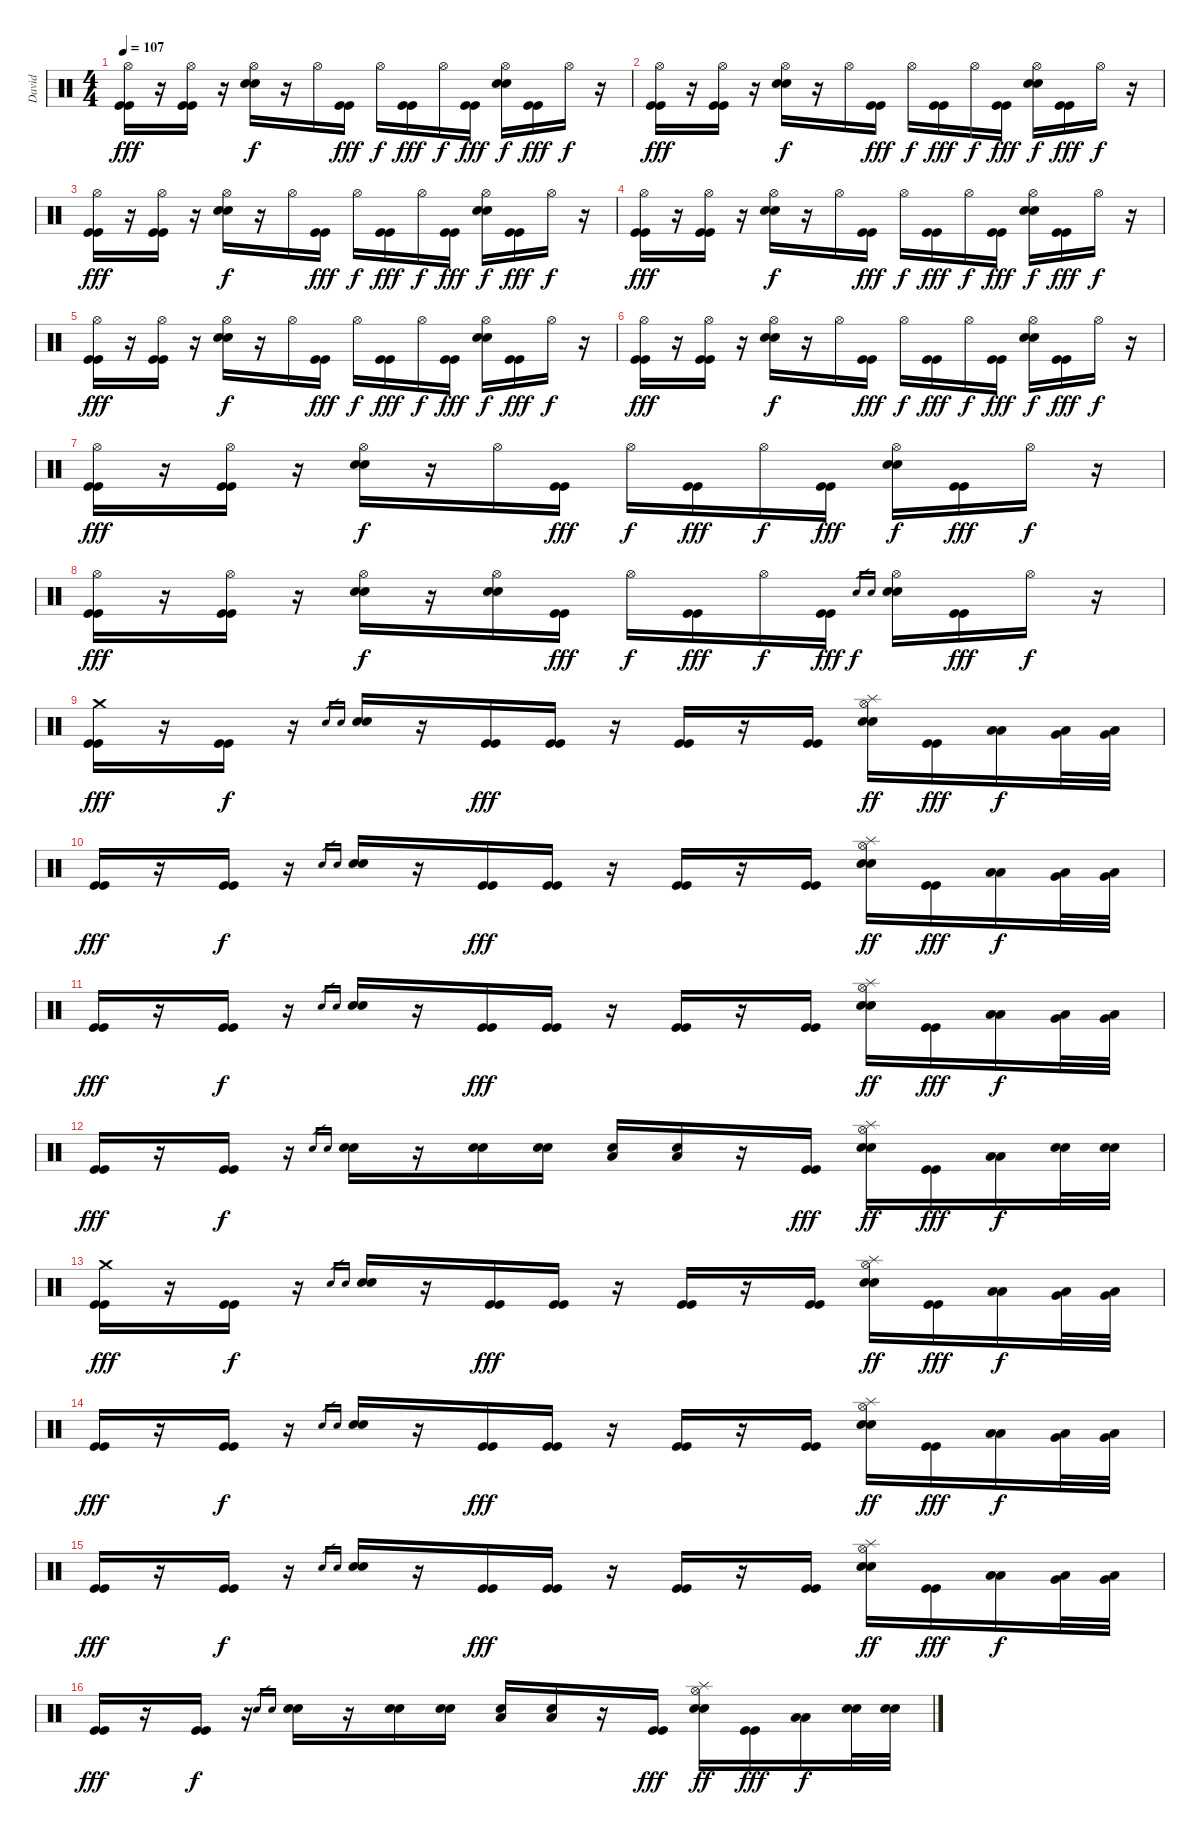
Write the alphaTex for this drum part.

\track ("David" "David") {instrument percussion}
\staff {score}
\articulation defaults
\ts (4 4)
\tempo 107
\clef neutral
\ks c
("Hi-Hat (open)" "Kick (hit)" "Kick (hit)").16{dy fff} r.16 ("Hi-Hat (open)" "Kick (hit)" "Kick (hit)").16 r.16 ("Hi-Hat (open)" "Electric Snare (hit)" "Electric Snare (hit)").16{dy f} r.16 "Hi-Hat (open)".16 ("Kick (hit)" "Kick (hit)").16{dy fff} "Hi-Hat (open)".16{dy f} ("Kick (hit)" "Kick (hit)").16{dy fff} "Hi-Hat (open)".16{dy f} ("Kick (hit)" "Kick (hit)").16{dy fff} ("Hi-Hat (open)" "Electric Snare (hit)" "Electric Snare (hit)").16{dy f} ("Kick (hit)" "Kick (hit)").16{dy fff} "Hi-Hat (open)".16{dy f} r.16 |
("Hi-Hat (open)" "Kick (hit)" "Kick (hit)").16{dy fff} r.16 ("Hi-Hat (open)" "Kick (hit)" "Kick (hit)").16 r.16 ("Hi-Hat (open)" "Electric Snare (hit)" "Electric Snare (hit)").16{dy f} r.16 "Hi-Hat (open)".16 ("Kick (hit)" "Kick (hit)").16{dy fff} "Hi-Hat (open)".16{dy f} ("Kick (hit)" "Kick (hit)").16{dy fff} "Hi-Hat (open)".16{dy f} ("Kick (hit)" "Kick (hit)").16{dy fff} ("Hi-Hat (open)" "Electric Snare (hit)" "Electric Snare (hit)").16{dy f} ("Kick (hit)" "Kick (hit)").16{dy fff} "Hi-Hat (open)".16{dy f} r.16 |
("Hi-Hat (open)" "Kick (hit)" "Kick (hit)").16{dy fff} r.16 ("Hi-Hat (open)" "Kick (hit)" "Kick (hit)").16 r.16 ("Hi-Hat (open)" "Electric Snare (hit)" "Electric Snare (hit)").16{dy f} r.16 "Hi-Hat (open)".16 ("Kick (hit)" "Kick (hit)").16{dy fff} "Hi-Hat (open)".16{dy f} ("Kick (hit)" "Kick (hit)").16{dy fff} "Hi-Hat (open)".16{dy f} ("Kick (hit)" "Kick (hit)").16{dy fff} ("Hi-Hat (open)" "Electric Snare (hit)" "Electric Snare (hit)").16{dy f} ("Kick (hit)" "Kick (hit)").16{dy fff} "Hi-Hat (open)".16{dy f} r.16 |
("Hi-Hat (open)" "Kick (hit)" "Kick (hit)").16{dy fff} r.16 ("Hi-Hat (open)" "Kick (hit)" "Kick (hit)").16 r.16 ("Hi-Hat (open)" "Electric Snare (hit)" "Electric Snare (hit)").16{dy f} r.16 "Hi-Hat (open)".16 ("Kick (hit)" "Kick (hit)").16{dy fff} "Hi-Hat (open)".16{dy f} ("Kick (hit)" "Kick (hit)").16{dy fff} "Hi-Hat (open)".16{dy f} ("Kick (hit)" "Kick (hit)").16{dy fff} ("Hi-Hat (open)" "Electric Snare (hit)" "Electric Snare (hit)").16{dy f} ("Kick (hit)" "Kick (hit)").16{dy fff} "Hi-Hat (open)".16{dy f} r.16 |
("Hi-Hat (open)" "Kick (hit)" "Kick (hit)").16{dy fff} r.16 ("Hi-Hat (open)" "Kick (hit)" "Kick (hit)").16 r.16 ("Hi-Hat (open)" "Electric Snare (hit)" "Electric Snare (hit)").16{dy f} r.16 "Hi-Hat (open)".16 ("Kick (hit)" "Kick (hit)").16{dy fff} "Hi-Hat (open)".16{dy f} ("Kick (hit)" "Kick (hit)").16{dy fff} "Hi-Hat (open)".16{dy f} ("Kick (hit)" "Kick (hit)").16{dy fff} ("Hi-Hat (open)" "Electric Snare (hit)" "Electric Snare (hit)").16{dy f} ("Kick (hit)" "Kick (hit)").16{dy fff} "Hi-Hat (open)".16{dy f} r.16 |
("Hi-Hat (open)" "Kick (hit)" "Kick (hit)").16{dy fff} r.16 ("Hi-Hat (open)" "Kick (hit)" "Kick (hit)").16 r.16 ("Hi-Hat (open)" "Electric Snare (hit)" "Electric Snare (hit)").16{dy f} r.16 "Hi-Hat (open)".16 ("Kick (hit)" "Kick (hit)").16{dy fff} "Hi-Hat (open)".16{dy f} ("Kick (hit)" "Kick (hit)").16{dy fff} "Hi-Hat (open)".16{dy f} ("Kick (hit)" "Kick (hit)").16{dy fff} ("Hi-Hat (open)" "Electric Snare (hit)" "Electric Snare (hit)").16{dy f} ("Kick (hit)" "Kick (hit)").16{dy fff} "Hi-Hat (open)".16{dy f} r.16 |
("Hi-Hat (open)" "Kick (hit)" "Kick (hit)").16{dy fff} r.16 ("Hi-Hat (open)" "Kick (hit)" "Kick (hit)").16 r.16 ("Hi-Hat (open)" "Electric Snare (hit)" "Electric Snare (hit)").16{dy f} r.16 "Hi-Hat (open)".16 ("Kick (hit)" "Kick (hit)").16{dy fff} "Hi-Hat (open)".16{dy f} ("Kick (hit)" "Kick (hit)").16{dy fff} "Hi-Hat (open)".16{dy f} ("Kick (hit)" "Kick (hit)").16{dy fff} ("Hi-Hat (open)" "Electric Snare (hit)" "Electric Snare (hit)").16{dy f} ("Kick (hit)" "Kick (hit)").16{dy fff} "Hi-Hat (open)".16{dy f} r.16 |
("Hi-Hat (open)" "Kick (hit)" "Kick (hit)").16{dy fff} r.16 ("Hi-Hat (open)" "Kick (hit)" "Kick (hit)").16 r.16 ("Hi-Hat (open)" "Electric Snare (hit)" "Electric Snare (hit)").16{dy f} r.16 ("Hi-Hat (open)" "Electric Snare (hit)" "Electric Snare (hit)").16 ("Kick (hit)" "Kick (hit)").16{dy fff} "Hi-Hat (open)".16{dy f} ("Kick (hit)" "Kick (hit)").16{dy fff} "Hi-Hat (open)".16{dy f} ("Kick (hit)" "Kick (hit)").16{dy fff} "Electric Snare (hit)".16{gr dy f} "Electric Snare (hit)".16{gr} ("Hi-Hat (open)" "Electric Snare (hit)" "Electric Snare (hit)").16 ("Kick (hit)" "Kick (hit)").16{dy fff} "Hi-Hat (open)".16{dy f} r.16 |
("Crash medium (hit)" "Kick (hit)" "Kick (hit)").16{dy fff} r.16 ("Kick (hit)" "Kick (hit)").16{dy f} r.16 "Electric Snare (hit)".16{gr} "Electric Snare (hit)".16{gr} ("Electric Snare (hit)" "Electric Snare (hit)").16 r.16 ("Kick (hit)" "Kick (hit)").16{dy fff} ("Kick (hit)" "Kick (hit)").16 r.16 ("Kick (hit)" "Kick (hit)").16 r.16 ("Kick (hit)" "Kick (hit)").16 ("Splash (hit)" "Hi-Hat (open)" "Electric Snare (hit)" "Electric Snare (hit)").16{dy ff} ("Kick (hit)" "Kick (hit)").16{dy fff} ("Low Floor Tom (hit)" "Low Floor Tom (hit)").16{dy f} ("Low Floor Tom (hit)" "Very Low Tom (hit)").32 ("Very Low Tom (hit)" "Low Tom (hit)").32 |
("Kick (hit)" "Kick (hit)").16{dy fff} r.16 ("Kick (hit)" "Kick (hit)").16{dy f} r.16 "Electric Snare (hit)".16{gr} "Electric Snare (hit)".16{gr} ("Electric Snare (hit)" "Electric Snare (hit)").16 r.16 ("Kick (hit)" "Kick (hit)").16{dy fff} ("Kick (hit)" "Kick (hit)").16 r.16 ("Kick (hit)" "Kick (hit)").16 r.16 ("Kick (hit)" "Kick (hit)").16 ("Splash (hit)" "Hi-Hat (open)" "Electric Snare (hit)" "Electric Snare (hit)").16{dy ff} ("Kick (hit)" "Kick (hit)").16{dy fff} ("Low Floor Tom (hit)" "Low Floor Tom (hit)").16{dy f} ("Low Floor Tom (hit)" "Very Low Tom (hit)").32 ("Very Low Tom (hit)" "Low Tom (hit)").32 |
("Kick (hit)" "Kick (hit)").16{dy fff} r.16 ("Kick (hit)" "Kick (hit)").16{dy f} r.16 "Electric Snare (hit)".16{gr} "Electric Snare (hit)".16{gr} ("Electric Snare (hit)" "Electric Snare (hit)").16 r.16 ("Kick (hit)" "Kick (hit)").16{dy fff} ("Kick (hit)" "Kick (hit)").16 r.16 ("Kick (hit)" "Kick (hit)").16 r.16 ("Kick (hit)" "Kick (hit)").16 ("Splash (hit)" "Hi-Hat (open)" "Electric Snare (hit)" "Electric Snare (hit)").16{dy ff} ("Kick (hit)" "Kick (hit)").16{dy fff} ("Low Floor Tom (hit)" "Low Floor Tom (hit)").16{dy f} ("Low Floor Tom (hit)" "Very Low Tom (hit)").32 ("Very Low Tom (hit)" "Low Tom (hit)").32 |
("Kick (hit)" "Kick (hit)").16{dy fff} r.16 ("Kick (hit)" "Kick (hit)").16{dy f} r.16 "Electric Snare (hit)".16{gr} "Electric Snare (hit)".16{gr} ("Electric Snare (hit)" "Electric Snare (hit)").16 r.16 ("Electric Snare (hit)" "Electric Snare (hit)").16 ("Electric Snare (hit)" "Electric Snare (hit)").16 ("Low Floor Tom (hit)" "Electric Snare (hit)").16 ("Low Floor Tom (hit)" "Electric Snare (hit)").16 r.16 ("Kick (hit)" "Kick (hit)").16{dy fff} ("Splash (hit)" "Hi-Hat (open)" "Electric Snare (hit)" "Electric Snare (hit)").16{dy ff} ("Kick (hit)" "Kick (hit)").16{dy fff} ("Low Floor Tom (hit)" "Low Floor Tom (hit)").16{dy f} ("Electric Snare (hit)" "Electric Snare (hit)").32 ("Electric Snare (hit)" "Electric Snare (hit)").32 |
("Crash medium (hit)" "Kick (hit)" "Kick (hit)").16{dy fff} r.16 ("Kick (hit)" "Kick (hit)").16{dy f} r.16 "Electric Snare (hit)".16{gr} "Electric Snare (hit)".16{gr} ("Electric Snare (hit)" "Electric Snare (hit)").16 r.16 ("Kick (hit)" "Kick (hit)").16{dy fff} ("Kick (hit)" "Kick (hit)").16 r.16 ("Kick (hit)" "Kick (hit)").16 r.16 ("Kick (hit)" "Kick (hit)").16 ("Splash (hit)" "Hi-Hat (open)" "Electric Snare (hit)" "Electric Snare (hit)").16{dy ff} ("Kick (hit)" "Kick (hit)").16{dy fff} ("Low Floor Tom (hit)" "Low Floor Tom (hit)").16{dy f} ("Low Floor Tom (hit)" "Very Low Tom (hit)").32 ("Very Low Tom (hit)" "Low Tom (hit)").32 |
("Kick (hit)" "Kick (hit)").16{dy fff} r.16 ("Kick (hit)" "Kick (hit)").16{dy f} r.16 "Electric Snare (hit)".16{gr} "Electric Snare (hit)".16{gr} ("Electric Snare (hit)" "Electric Snare (hit)").16 r.16 ("Kick (hit)" "Kick (hit)").16{dy fff} ("Kick (hit)" "Kick (hit)").16 r.16 ("Kick (hit)" "Kick (hit)").16 r.16 ("Kick (hit)" "Kick (hit)").16 ("Splash (hit)" "Hi-Hat (open)" "Electric Snare (hit)" "Electric Snare (hit)").16{dy ff} ("Kick (hit)" "Kick (hit)").16{dy fff} ("Low Floor Tom (hit)" "Low Floor Tom (hit)").16{dy f} ("Low Floor Tom (hit)" "Very Low Tom (hit)").32 ("Very Low Tom (hit)" "Low Tom (hit)").32 |
("Kick (hit)" "Kick (hit)").16{dy fff} r.16 ("Kick (hit)" "Kick (hit)").16{dy f} r.16 "Electric Snare (hit)".16{gr} "Electric Snare (hit)".16{gr} ("Electric Snare (hit)" "Electric Snare (hit)").16 r.16 ("Kick (hit)" "Kick (hit)").16{dy fff} ("Kick (hit)" "Kick (hit)").16 r.16 ("Kick (hit)" "Kick (hit)").16 r.16 ("Kick (hit)" "Kick (hit)").16 ("Splash (hit)" "Hi-Hat (open)" "Electric Snare (hit)" "Electric Snare (hit)").16{dy ff} ("Kick (hit)" "Kick (hit)").16{dy fff} ("Low Floor Tom (hit)" "Low Floor Tom (hit)").16{dy f} ("Low Floor Tom (hit)" "Very Low Tom (hit)").32 ("Very Low Tom (hit)" "Low Tom (hit)").32 |
("Kick (hit)" "Kick (hit)").16{dy fff} r.16 ("Kick (hit)" "Kick (hit)").16{dy f} r.16 "Electric Snare (hit)".16{gr} "Electric Snare (hit)".16{gr} ("Electric Snare (hit)" "Electric Snare (hit)").16 r.16 ("Electric Snare (hit)" "Electric Snare (hit)").16 ("Electric Snare (hit)" "Electric Snare (hit)").16 ("Low Floor Tom (hit)" "Electric Snare (hit)").16 ("Low Floor Tom (hit)" "Electric Snare (hit)").16 r.16 ("Kick (hit)" "Kick (hit)").16{dy fff} ("Splash (hit)" "Hi-Hat (open)" "Electric Snare (hit)" "Electric Snare (hit)").16{dy ff} ("Kick (hit)" "Kick (hit)").16{dy fff} ("Low Floor Tom (hit)" "Low Floor Tom (hit)").16{dy f} ("Electric Snare (hit)" "Electric Snare (hit)").32 ("Electric Snare (hit)" "Electric Snare (hit)").32
